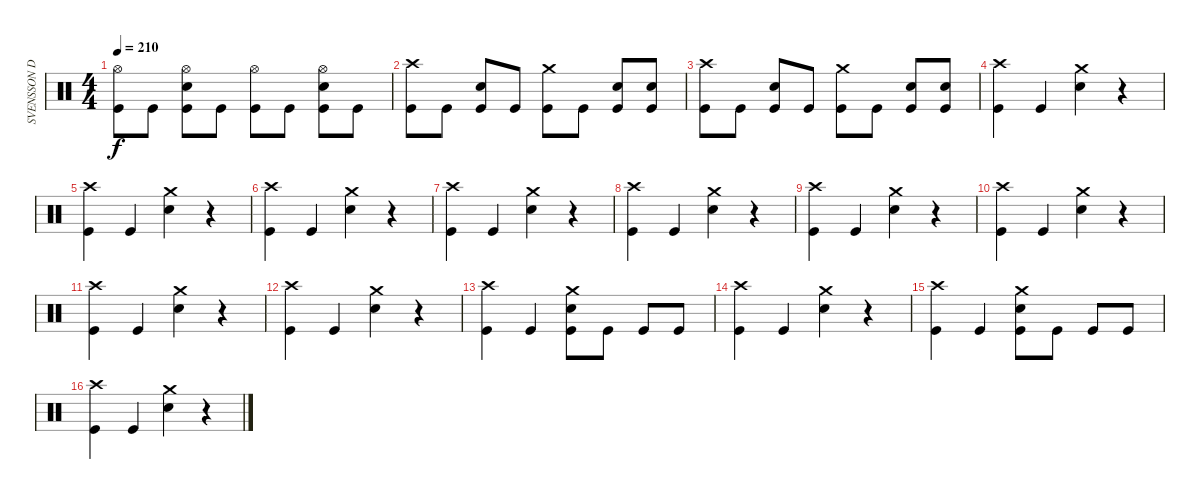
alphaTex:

\track ("SVENSSON DRUMS" "SVENSSON D") {instrument percussion}
\staff {score}
\articulation defaults
\ts (4 4)
\tempo 210
\clef neutral
\ks c
("Hi-Hat (open)" "Kick (hit)").8{dy f} "Kick (hit)".8 ("Hi-Hat (open)" "Electric Snare (hit)" "Kick (hit)").8 "Kick (hit)".8 ("Hi-Hat (open)" "Kick (hit)").8 "Kick (hit)".8 ("Hi-Hat (open)" "Electric Snare (hit)" "Kick (hit)").8 "Kick (hit)".8 |
("Crash high (hit)" "Kick (hit)").8 "Kick (hit)".8 ("Electric Snare (hit)" "Kick (hit)").8 "Kick (hit)".8 ("Crash medium (hit)" "Kick (hit)").8 "Kick (hit)".8 ("Electric Snare (hit)" "Kick (hit)").8 ("Electric Snare (hit)" "Kick (hit)").8 |
("Crash high (hit)" "Kick (hit)").8 "Kick (hit)".8 ("Electric Snare (hit)" "Kick (hit)").8 "Kick (hit)".8 ("Crash medium (hit)" "Kick (hit)").8 "Kick (hit)".8 ("Electric Snare (hit)" "Kick (hit)").8 ("Electric Snare (hit)" "Kick (hit)").8 |
("Crash high (hit)" "Kick (hit)").4 "Kick (hit)".4 ("Crash medium (hit)" "Electric Snare (hit)").4 r.4 |
("Crash high (hit)" "Kick (hit)").4 "Kick (hit)".4 ("Crash medium (hit)" "Electric Snare (hit)").4 r.4 |
("Crash high (hit)" "Kick (hit)").4 "Kick (hit)".4 ("Crash medium (hit)" "Electric Snare (hit)").4 r.4 |
("Crash high (hit)" "Kick (hit)").4 "Kick (hit)".4 ("Crash medium (hit)" "Electric Snare (hit)").4 r.4 |
("Crash high (hit)" "Kick (hit)").4 "Kick (hit)".4 ("Crash medium (hit)" "Electric Snare (hit)").4 r.4 |
("Crash high (hit)" "Kick (hit)").4 "Kick (hit)".4 ("Crash medium (hit)" "Electric Snare (hit)").4 r.4 |
("Crash high (hit)" "Kick (hit)").4 "Kick (hit)".4 ("Crash medium (hit)" "Electric Snare (hit)").4 r.4 |
("Crash high (hit)" "Kick (hit)").4 "Kick (hit)".4 ("Crash medium (hit)" "Electric Snare (hit)").4 r.4 |
("Crash high (hit)" "Kick (hit)").4 "Kick (hit)".4 ("Crash medium (hit)" "Electric Snare (hit)").4 r.4 |
("Crash high (hit)" "Kick (hit)").4 "Kick (hit)".4 ("Crash medium (hit)" "Electric Snare (hit)" "Kick (hit)").8 "Kick (hit)".8 "Kick (hit)".8 "Kick (hit)".8 |
("Crash high (hit)" "Kick (hit)").4 "Kick (hit)".4 ("Crash medium (hit)" "Electric Snare (hit)").4 r.4 |
("Crash high (hit)" "Kick (hit)").4 "Kick (hit)".4 ("Crash medium (hit)" "Electric Snare (hit)" "Kick (hit)").8 "Kick (hit)".8 "Kick (hit)".8 "Kick (hit)".8 |
("Crash high (hit)" "Kick (hit)").4 "Kick (hit)".4 ("Crash medium (hit)" "Electric Snare (hit)").4 r.4
